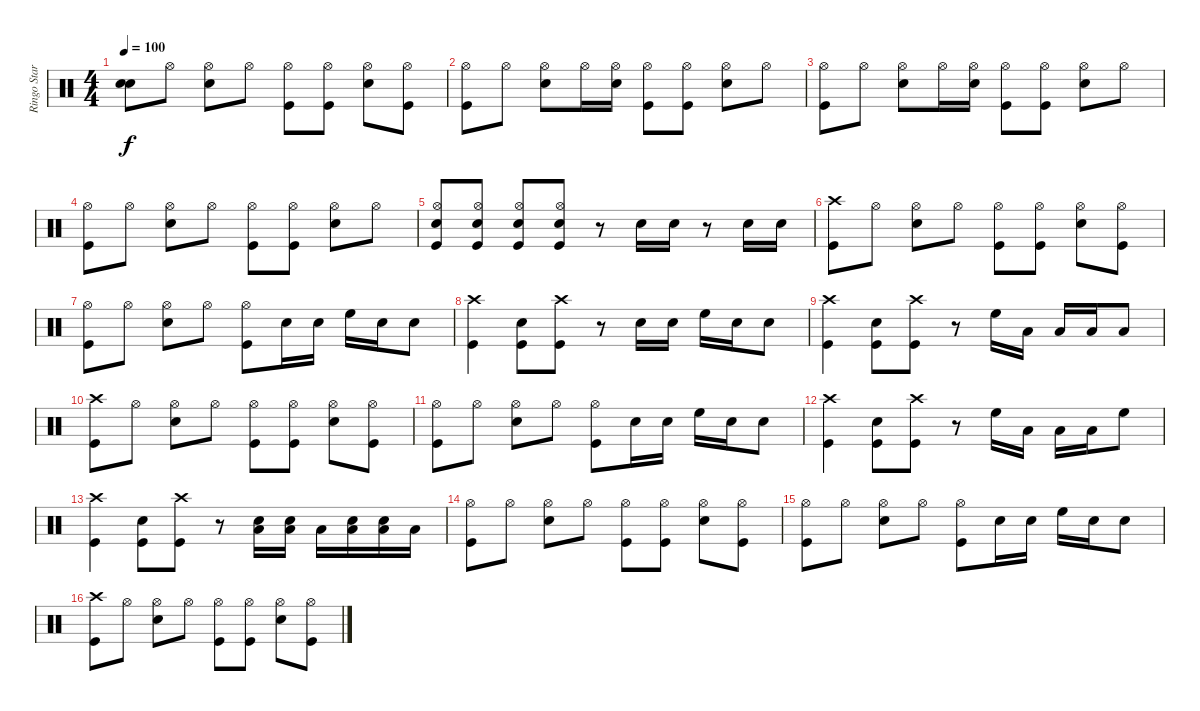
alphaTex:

\track ("Ringo Starr" "Ringo Star") {instrument percussion}
\staff {score}
\articulation defaults
\ts (4 4)
\tempo 100
\clef neutral
\ks c
("Snare (hit)"{t} "Snare (hit)"{t}).8{dy f} "Hi-Hat (open)".8 ("Hi-Hat (open)" "Snare (hit) 2").8 "Hi-Hat (open)".8 ("Hi-Hat (open)" "Kick (hit)").8 ("Hi-Hat (open)" "Kick (hit)").8 ("Hi-Hat (open)" "Snare (hit) 2").8 ("Hi-Hat (open)" "Kick (hit)").8 |
("Hi-Hat (open)" "Kick (hit)").8 "Hi-Hat (open)".8 ("Hi-Hat (open)" "Snare (hit) 2").8 "Hi-Hat (open)".16 ("Hi-Hat (open)" "Snare (hit) 2").16 ("Hi-Hat (open)" "Kick (hit)").8 ("Hi-Hat (open)" "Kick (hit)").8 ("Hi-Hat (open)" "Snare (hit) 2").8 "Hi-Hat (open)".8 |
("Hi-Hat (open)" "Kick (hit)").8 "Hi-Hat (open)".8 ("Hi-Hat (open)" "Snare (hit) 2").8 "Hi-Hat (open)".16 ("Hi-Hat (open)" "Snare (hit) 2").16 ("Hi-Hat (open)" "Kick (hit)").8 ("Hi-Hat (open)" "Kick (hit)").8 ("Hi-Hat (open)" "Snare (hit) 2").8 "Hi-Hat (open)".8 |
("Hi-Hat (open)" "Kick (hit)").8 "Hi-Hat (open)".8 ("Hi-Hat (open)" "Snare (hit) 2").8 "Hi-Hat (open)".8 ("Hi-Hat (open)" "Kick (hit)").8 ("Hi-Hat (open)" "Kick (hit)").8 ("Hi-Hat (open)" "Snare (hit) 2").8 "Hi-Hat (open)".8 |
("Hi-Hat (open)" "Snare (hit) 2" "Kick (hit)").8 ("Hi-Hat (open)" "Snare (hit) 2" "Kick (hit)").8 ("Hi-Hat (open)" "Snare (hit) 2" "Kick (hit)").8 ("Hi-Hat (open)" "Snare (hit) 2" "Kick (hit)").8 r.8 "Snare (hit) 2".16 "Snare (hit) 2".16 r.8 "Snare (hit) 2".16 "Snare (hit) 2".16 |
("Crash high (hit)" "Kick (hit)").8 "Hi-Hat (open)".8 ("Hi-Hat (open)" "Snare (hit) 2").8 "Hi-Hat (open)".8 ("Hi-Hat (open)" "Kick (hit)").8 ("Hi-Hat (open)" "Kick (hit)").8 ("Hi-Hat (open)" "Snare (hit) 2").8 ("Hi-Hat (open)" "Kick (hit)").8 |
("Hi-Hat (open)" "Kick (hit)").8 "Hi-Hat (open)".8 ("Hi-Hat (open)" "Snare (hit) 2").8 "Hi-Hat (open)".8 ("Hi-Hat (open)" "Kick (hit)").8 "Snare (hit) 2".16 "Snare (hit) 2".16 "High Floor Tom (hit)".16 "Snare (hit) 2".16 "Snare (hit) 2".8 |
("Crash high (hit)" "Kick (hit)").4 ("Snare (hit) 2" "Kick (hit)").8 ("Crash high (hit)" "Kick (hit)").8 r.8 "Snare (hit) 2".16 "Snare (hit) 2".16 "High Floor Tom (hit)".16 "Snare (hit) 2".16 "Snare (hit) 2".8 |
("Crash high (hit)" "Kick (hit)").4 ("Snare (hit) 2" "Kick (hit)").8 ("Crash high (hit)" "Kick (hit)").8 r.8 "High Floor Tom (hit)".16 "Low Floor Tom (hit)".16 "Low Floor Tom (hit)".16 "Low Floor Tom (hit)".16 "Low Floor Tom (hit)".8 |
("Crash high (hit)" "Kick (hit)").8 "Hi-Hat (open)".8 ("Hi-Hat (open)" "Snare (hit) 2").8 "Hi-Hat (open)".8 ("Hi-Hat (open)" "Kick (hit)").8 ("Hi-Hat (open)" "Kick (hit)").8 ("Hi-Hat (open)" "Snare (hit) 2").8 ("Hi-Hat (open)" "Kick (hit)").8 |
("Hi-Hat (open)" "Kick (hit)").8 "Hi-Hat (open)".8 ("Hi-Hat (open)" "Snare (hit) 2").8 "Hi-Hat (open)".8 ("Hi-Hat (open)" "Kick (hit)").8 "Snare (hit) 2".16 "Snare (hit) 2".16 "High Floor Tom (hit)".16 "Snare (hit) 2".16 "Snare (hit) 2".8 |
("Crash high (hit)" "Kick (hit)").4 ("Snare (hit) 2" "Kick (hit)").8 ("Crash high (hit)" "Kick (hit)").8 r.8 "High Floor Tom (hit)".16 "Low Floor Tom (hit)".16 "Low Floor Tom (hit)".16 "Low Floor Tom (hit)".16 "High Floor Tom (hit)".8 |
("Crash high (hit)" "Kick (hit)").4 ("Snare (hit) 2" "Kick (hit)").8 ("Crash high (hit)" "Kick (hit)").8 r.8 ("Snare (hit) 2" "Low Floor Tom (hit)").16 ("Snare (hit) 2" "Low Floor Tom (hit)").16 "Low Floor Tom (hit)".16 ("Snare (hit) 2" "Low Floor Tom (hit)").16 ("Snare (hit) 2" "Low Floor Tom (hit)").16 "Low Floor Tom (hit)".16 |
("Hi-Hat (open)" "Kick (hit)").8 "Hi-Hat (open)".8 ("Hi-Hat (open)" "Snare (hit) 2").8 "Hi-Hat (open)".8 ("Hi-Hat (open)" "Kick (hit)").8 ("Hi-Hat (open)" "Kick (hit)").8 ("Hi-Hat (open)" "Snare (hit) 2").8 ("Hi-Hat (open)" "Kick (hit)").8 |
("Hi-Hat (open)" "Kick (hit)").8 "Hi-Hat (open)".8 ("Hi-Hat (open)" "Snare (hit) 2").8 "Hi-Hat (open)".8 ("Hi-Hat (open)" "Kick (hit)").8 "Snare (hit) 2".16 "Snare (hit) 2".16 "High Floor Tom (hit)".16 "Snare (hit) 2".16 "Snare (hit) 2".8 |
("Crash high (hit)" "Kick (hit)").8 "Hi-Hat (open)".8 ("Hi-Hat (open)" "Snare (hit) 2").8 "Hi-Hat (open)".8 ("Hi-Hat (open)" "Kick (hit)").8 ("Hi-Hat (open)" "Kick (hit)").8 ("Hi-Hat (open)" "Snare (hit) 2").8 ("Hi-Hat (open)" "Kick (hit)").8
